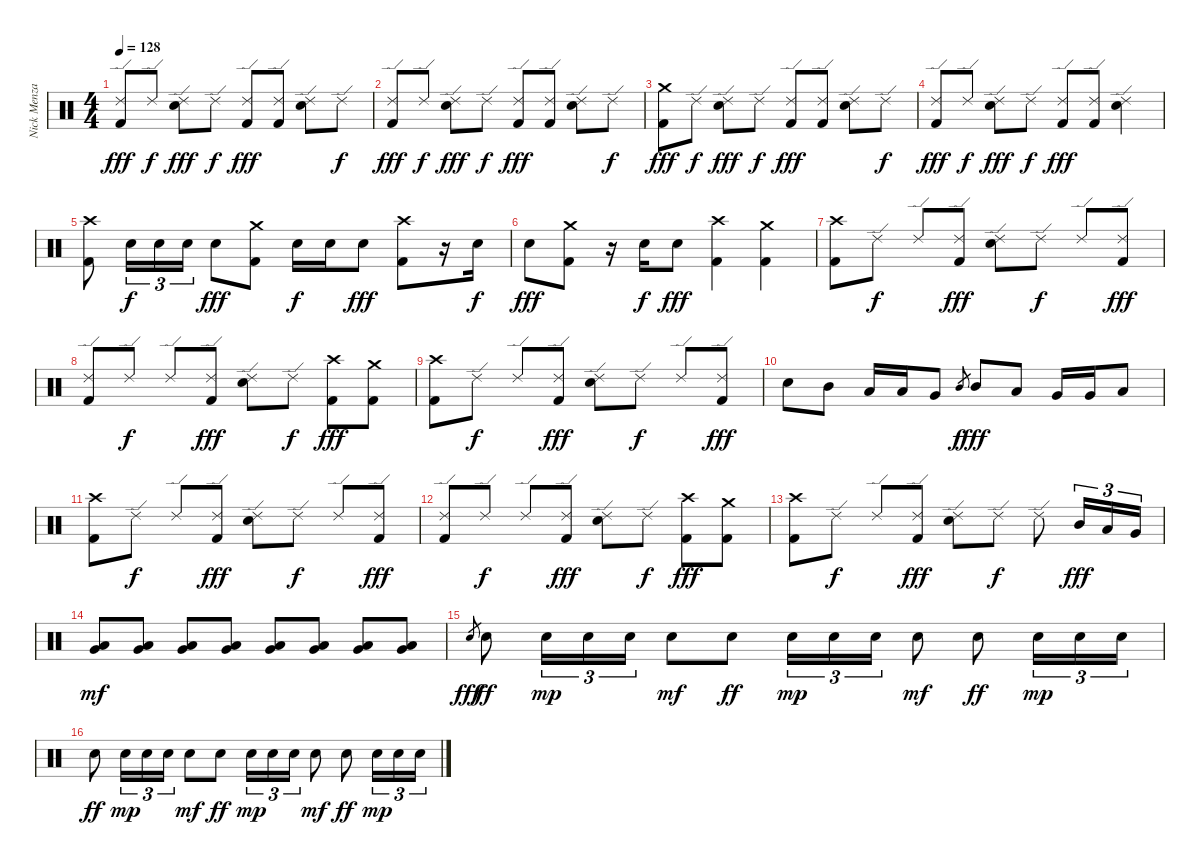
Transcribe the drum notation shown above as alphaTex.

\track ("Nick Menza" "Nick Menza") {instrument percussion}
\staff {score}
\articulation defaults
\ts (4 4)
\tempo 128
\clef neutral
\ks c
("Ride (edge) 2" "Kick (hit) 2").8{dy fff} "Ride (edge) 2".8{dy f} ("Ride (edge) 2" "Electric Snare (hit)").8{dy fff} "Ride (edge) 2".8{dy f} ("Ride (edge) 2" "Kick (hit) 2").8{dy fff} ("Ride (edge) 2" "Kick (hit) 2").8 ("Ride (edge) 2" "Electric Snare (hit)").8 "Ride (edge) 2".8{dy f} |
("Ride (edge) 2" "Kick (hit) 2").8{dy fff} "Ride (edge) 2".8{dy f} ("Ride (edge) 2" "Electric Snare (hit)").8{dy fff} "Ride (edge) 2".8{dy f} ("Ride (edge) 2" "Kick (hit) 2").8{dy fff} ("Ride (edge) 2" "Kick (hit) 2").8 ("Ride (edge) 2" "Electric Snare (hit)").8 "Ride (edge) 2".8{dy f} |
("Crash medium (hit)" "Kick (hit) 2").8{dy fff} "Ride (edge) 2".8{dy f} ("Ride (edge) 2" "Electric Snare (hit)").8{dy fff} "Ride (edge) 2".8{dy f} ("Ride (edge) 2" "Kick (hit) 2").8{dy fff} ("Ride (edge) 2" "Kick (hit) 2").8 ("Ride (edge) 2" "Electric Snare (hit)").8 "Ride (edge) 2".8{dy f} |
("Ride (edge) 2" "Kick (hit) 2").8{dy fff} "Ride (edge) 2".8{dy f} ("Ride (edge) 2" "Electric Snare (hit)").8{dy fff} "Ride (edge) 2".8{dy f} ("Ride (edge) 2" "Kick (hit) 2").8{dy fff} ("Ride (edge) 2" "Kick (hit) 2").8 ("Ride (edge) 2" "Electric Snare (hit)").4 |
("Crash high (hit)" "Kick (hit) 2").8 "Electric Snare (hit)".16{tu (3 2) dy f} "Electric Snare (hit)".16{tu (3 2)} "Electric Snare (hit)".16{tu (3 2)} "Electric Snare (hit)".8{dy fff} ("Crash medium (hit)" "Kick (hit) 2").8 "Electric Snare (hit)".16{dy f} "Electric Snare (hit)".16 "Electric Snare (hit)".8{dy fff} ("Crash high (hit)" "Kick (hit) 2").8 r.16 "Electric Snare (hit)".16{dy f} |
"Electric Snare (hit)".8{dy fff} ("Crash medium (hit)" "Kick (hit) 2").8 r.16 "Electric Snare (hit)".16{dy f} "Electric Snare (hit)".8{dy fff} ("Crash high (hit)" "Kick (hit) 2").4 ("Crash medium (hit)" "Kick (hit) 2").4 |
("Crash high (hit)" "Kick (hit) 2").8 "Ride (edge) 2".8{dy f} "Ride (edge) 2".8 ("Ride (edge) 2" "Kick (hit) 2").8{dy fff} ("Ride (edge) 2" "Electric Snare (hit)").8 "Ride (edge) 2".8{dy f} "Ride (edge) 2".8 ("Ride (edge) 2" "Kick (hit) 2").8{dy fff} |
("Ride (edge) 2" "Kick (hit) 2").8 "Ride (edge) 2".8{dy f} "Ride (edge) 2".8 ("Ride (edge) 2" "Kick (hit) 2").8{dy fff} ("Ride (edge) 2" "Electric Snare (hit)").8 "Ride (edge) 2".8{dy f} ("Crash high (hit)" "Kick (hit) 2").8{dy fff} ("Crash medium (hit)" "Kick (hit) 2").8 |
("Crash high (hit)" "Kick (hit) 2").8 "Ride (edge) 2".8{dy f} "Ride (edge) 2".8 ("Ride (edge) 2" "Kick (hit) 2").8{dy fff} ("Ride (edge) 2" "Electric Snare (hit)").8 "Ride (edge) 2".8{dy f} "Ride (edge) 2".8 ("Ride (edge) 2" "Kick (hit) 2").8{dy fff} |
"Electric Snare (hit)".8 "Mid Tom (hit)".8 "Low Tom (hit)".16 "Low Tom (hit)".16 "Very Low Tom (hit)".8 "Mid Tom (hit)".8{gr dy f} "Mid Tom (hit)".8{dy fff} "Low Tom (hit)".8 "Very Low Tom (hit)".16 "Very Low Tom (hit)".16 "Low Floor Tom (hit)".8 |
("Crash high (hit)" "Kick (hit) 2").8 "Ride (edge) 2".8{dy f} "Ride (edge) 2".8 ("Ride (edge) 2" "Kick (hit) 2").8{dy fff} ("Ride (edge) 2" "Electric Snare (hit)").8 "Ride (edge) 2".8{dy f} "Ride (edge) 2".8 ("Ride (edge) 2" "Kick (hit) 2").8{dy fff} |
("Ride (edge) 2" "Kick (hit) 2").8 "Ride (edge) 2".8{dy f} "Ride (edge) 2".8 ("Ride (edge) 2" "Kick (hit) 2").8{dy fff} ("Ride (edge) 2" "Electric Snare (hit)").8 "Ride (edge) 2".8{dy f} ("Crash high (hit)" "Kick (hit) 2").8{dy fff} ("Crash medium (hit)" "Kick (hit) 2").8 |
("Crash high (hit)" "Kick (hit) 2").8 "Ride (edge) 2".8{dy f} "Ride (edge) 2".8 ("Ride (edge) 2" "Kick (hit) 2").8{dy fff} ("Ride (edge) 2" "Electric Snare (hit)").8 "Ride (edge) 2".8{dy f} "Ride (edge) 2".8 "Mid Tom (hit)".16{tu (3 2) dy fff} "Low Tom (hit)".16{tu (3 2)} "Very Low Tom (hit)".16{tu (3 2)} |
("Very Low Tom (hit)" "Low Floor Tom (hit)").8{dy mf} ("Very Low Tom (hit)" "Low Floor Tom (hit)").8 ("Very Low Tom (hit)" "Low Floor Tom (hit)").8 ("Very Low Tom (hit)" "Low Floor Tom (hit)").8 ("Very Low Tom (hit)" "Low Floor Tom (hit)").8 ("Very Low Tom (hit)" "Low Floor Tom (hit)").8 ("Very Low Tom (hit)" "Low Floor Tom (hit)").8 ("Very Low Tom (hit)" "Low Floor Tom (hit)").8 |
"Electric Snare (hit)".8{gr dy fff} "Electric Snare (hit)".8{dy ff} "Electric Snare (hit)".16{tu (3 2) dy mp} "Electric Snare (hit)".16{tu (3 2)} "Electric Snare (hit)".16{tu (3 2)} "Electric Snare (hit)".8{dy mf} "Electric Snare (hit)".8{dy ff} "Electric Snare (hit)".16{tu (3 2) dy mp} "Electric Snare (hit)".16{tu (3 2)} "Electric Snare (hit)".16{tu (3 2)} "Electric Snare (hit)".8{dy mf} "Electric Snare (hit)".8{dy ff} "Electric Snare (hit)".16{tu (3 2) dy mp} "Electric Snare (hit)".16{tu (3 2)} "Electric Snare (hit)".16{tu (3 2)} |
"Electric Snare (hit)".8{dy ff} "Electric Snare (hit)".16{tu (3 2) dy mp} "Electric Snare (hit)".16{tu (3 2)} "Electric Snare (hit)".16{tu (3 2)} "Electric Snare (hit)".8{dy mf} "Electric Snare (hit)".8{dy ff} "Electric Snare (hit)".16{tu (3 2) dy mp} "Electric Snare (hit)".16{tu (3 2)} "Electric Snare (hit)".16{tu (3 2)} "Electric Snare (hit)".8{dy mf} "Electric Snare (hit)".8{dy ff} "Electric Snare (hit)".16{tu (3 2) dy mp} "Electric Snare (hit)".16{tu (3 2)} "Electric Snare (hit)".16{tu (3 2)}
